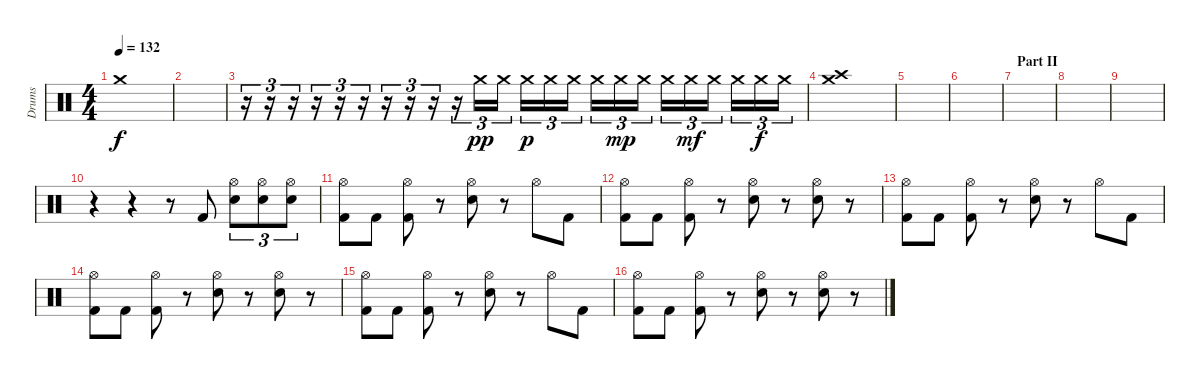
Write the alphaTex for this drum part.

\track ("Drums" "Drums") {instrument percussion}
\staff {score}
\articulation defaults
\ts (4 4)
\tempo 132
\clef neutral
\ks c "Crash medium (hit)".1{dy f}
|
|
r.16{tu (3 2)} r.16{tu (3 2)} r.16{tu (3 2)} r.16{tu (3 2)} r.16{tu (3 2)} r.16{tu (3 2)} r.16{tu (3 2)} r.16{tu (3 2)} r.16{tu (3 2)} r.16{tu (3 2)} "Crash medium (hit)".16{tu (3 2) dy pp} "Crash medium (hit)".16{tu (3 2)} "Crash medium (hit)".16{tu (3 2) dy p} "Crash medium (hit)".16{tu (3 2)} "Crash medium (hit)".16{tu (3 2)} "Crash medium (hit)".16{tu (3 2)} "Crash medium (hit)".16{tu (3 2) dy mp} "Crash medium (hit)".16{tu (3 2)} "Crash medium (hit)".16{tu (3 2)} "Crash medium (hit)".16{tu (3 2) dy mf} "Crash medium (hit)".16{tu (3 2)} "Crash medium (hit)".16{tu (3 2)} "Crash medium (hit)".16{tu (3 2) dy f} "Crash medium (hit)".16{tu (3 2)} |
("Crash medium (hit)" "Crash high (hit)").1 |
|
|
\section ("" "Part II")
|
|
|
r.4 r.4 r.8 "Kick (hit) 2".8 ("Hi-Hat (open)" "Electric Snare (hit)").8{tu (3 2)} ("Hi-Hat (open)" "Electric Snare (hit)").8{tu (3 2)} ("Hi-Hat (open)" "Electric Snare (hit)").8{tu (3 2)} |
("Hi-Hat (open)" "Kick (hit) 2").8 "Kick (hit) 2".8 ("Hi-Hat (open)" "Kick (hit) 2").8 r.8 ("Hi-Hat (open)" "Electric Snare (hit)").8 r.8 "Hi-Hat (open)".8 "Kick (hit) 2".8 |
("Hi-Hat (open)" "Kick (hit) 2").8 "Kick (hit) 2".8 ("Hi-Hat (open)" "Kick (hit) 2").8 r.8 ("Hi-Hat (open)" "Electric Snare (hit)").8 r.8 ("Hi-Hat (open)" "Electric Snare (hit)").8 r.8 |
("Hi-Hat (open)" "Kick (hit) 2").8 "Kick (hit) 2".8 ("Hi-Hat (open)" "Kick (hit) 2").8 r.8 ("Hi-Hat (open)" "Electric Snare (hit)").8 r.8 "Hi-Hat (open)".8 "Kick (hit) 2".8 |
("Hi-Hat (open)" "Kick (hit) 2").8 "Kick (hit) 2".8 ("Hi-Hat (open)" "Kick (hit) 2").8 r.8 ("Hi-Hat (open)" "Electric Snare (hit)").8 r.8 ("Hi-Hat (open)" "Electric Snare (hit)").8 r.8 |
("Hi-Hat (open)" "Kick (hit) 2").8 "Kick (hit) 2".8 ("Hi-Hat (open)" "Kick (hit) 2").8 r.8 ("Hi-Hat (open)" "Electric Snare (hit)").8 r.8 "Hi-Hat (open)".8 "Kick (hit) 2".8 |
("Hi-Hat (open)" "Kick (hit) 2").8 "Kick (hit) 2".8 ("Hi-Hat (open)" "Kick (hit) 2").8 r.8 ("Hi-Hat (open)" "Electric Snare (hit)").8 r.8 ("Hi-Hat (open)" "Electric Snare (hit)").8 r.8
